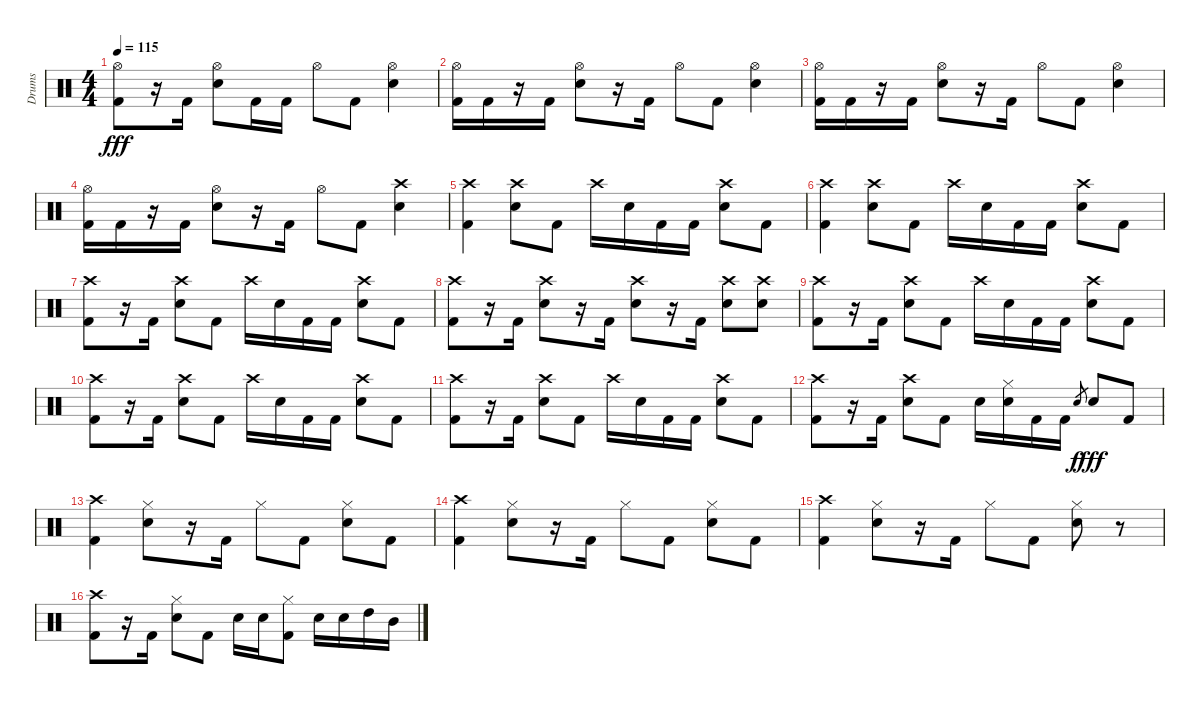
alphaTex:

\track ("Drums" "Drums") {instrument percussion}
\staff {score}
\articulation defaults
\ts (4 4)
\tempo 115
\clef neutral
\ks c
("Hi-Hat (open)" "Kick (hit) 2").8{dy fff} r.16 "Kick (hit) 2".16 ("Hi-Hat (open)" "Electric Snare (hit)").8 "Kick (hit) 2".16 "Kick (hit) 2".16 "Hi-Hat (open)".8 "Kick (hit) 2".8 ("Hi-Hat (open)" "Electric Snare (hit)").4 |
("Hi-Hat (open)" "Kick (hit) 2").16 "Kick (hit) 2".16 r.16 "Kick (hit) 2".16 ("Hi-Hat (open)" "Electric Snare (hit)").8 r.16 "Kick (hit) 2".16 "Hi-Hat (open)".8 "Kick (hit) 2".8 ("Hi-Hat (open)" "Electric Snare (hit)").4 |
("Hi-Hat (open)" "Kick (hit) 2").16 "Kick (hit) 2".16 r.16 "Kick (hit) 2".16 ("Hi-Hat (open)" "Electric Snare (hit)").8 r.16 "Kick (hit) 2".16 "Hi-Hat (open)".8 "Kick (hit) 2".8 ("Hi-Hat (open)" "Electric Snare (hit)").4 |
("Hi-Hat (open)" "Kick (hit) 2").16 "Kick (hit) 2".16 r.16 "Kick (hit) 2".16 ("Hi-Hat (open)" "Electric Snare (hit)").8 r.16 "Kick (hit) 2".16 "Hi-Hat (open)".8 "Kick (hit) 2".8 ("Crash high (hit)" "Electric Snare (hit)").4 |
("Crash high (hit)" "Kick (hit) 2").4 ("Crash high (hit)" "Electric Snare (hit)").8 "Kick (hit) 2".8 "Crash high (hit)".16 "Electric Snare (hit)".16 "Kick (hit) 2".16 "Kick (hit) 2".16 ("Crash high (hit)" "Electric Snare (hit)").8 "Kick (hit) 2".8 |
("Crash high (hit)" "Kick (hit) 2").4 ("Crash high (hit)" "Electric Snare (hit)").8 "Kick (hit) 2".8 "Crash high (hit)".16 "Electric Snare (hit)".16 "Kick (hit) 2".16 "Kick (hit) 2".16 ("Crash high (hit)" "Electric Snare (hit)").8 "Kick (hit) 2".8 |
("Crash high (hit)" "Kick (hit) 2").8 r.16 "Kick (hit) 2".16 ("Crash high (hit)" "Electric Snare (hit)").8 "Kick (hit) 2".8 "Crash high (hit)".16 "Electric Snare (hit)".16 "Kick (hit) 2".16 "Kick (hit) 2".16 ("Crash high (hit)" "Electric Snare (hit)").8 "Kick (hit) 2".8 |
("Crash high (hit)" "Kick (hit) 2").8 r.16 "Kick (hit) 2".16 ("Crash high (hit)" "Electric Snare (hit)").8 r.16 "Kick (hit) 2".16 ("Crash high (hit)" "Electric Snare (hit)").8 r.16 "Kick (hit) 2".16 ("Crash high (hit)" "Electric Snare (hit)").8 ("Crash high (hit)" "Electric Snare (hit)").8 |
("Crash high (hit)" "Kick (hit) 2").8 r.16 "Kick (hit) 2".16 ("Crash high (hit)" "Electric Snare (hit)").8 "Kick (hit) 2".8 "Crash high (hit)".16 "Electric Snare (hit)".16 "Kick (hit) 2".16 "Kick (hit) 2".16 ("Crash high (hit)" "Electric Snare (hit)").8 "Kick (hit) 2".8 |
("Crash high (hit)" "Kick (hit) 2").8 r.16 "Kick (hit) 2".16 ("Crash high (hit)" "Electric Snare (hit)").8 "Kick (hit) 2".8 "Crash high (hit)".16 "Electric Snare (hit)".16 "Kick (hit) 2".16 "Kick (hit) 2".16 ("Crash high (hit)" "Electric Snare (hit)").8 "Kick (hit) 2".8 |
("Crash high (hit)" "Kick (hit) 2").8 r.16 "Kick (hit) 2".16 ("Crash high (hit)" "Electric Snare (hit)").8 "Kick (hit) 2".8 "Crash high (hit)".16 "Electric Snare (hit)".16 "Kick (hit) 2".16 "Kick (hit) 2".16 ("Crash high (hit)" "Electric Snare (hit)").8 "Kick (hit) 2".8 |
("Crash high (hit)" "Kick (hit) 2").8 r.16 "Kick (hit) 2".16 ("Crash high (hit)" "Electric Snare (hit)").8 "Kick (hit) 2".8 "Electric Snare (hit)".16 ("Hi-Hat (closed)" "Electric Snare (hit)").16 "Kick (hit) 2".16 "Kick (hit) 2".16 "Electric Snare (hit)".8{gr dy f} "Electric Snare (hit)".8{dy fff} "Kick (hit) 2".8 |
("Crash high (hit)" "Kick (hit) 2").4 ("Hi-Hat (closed)" "Electric Snare (hit)").8 r.16 "Kick (hit) 2".16 "Hi-Hat (closed)".8 "Kick (hit) 2".8 ("Hi-Hat (closed)" "Electric Snare (hit)").8 "Kick (hit) 2".8 |
("Crash high (hit)" "Kick (hit) 2").4 ("Hi-Hat (closed)" "Electric Snare (hit)").8 r.16 "Kick (hit) 2".16 "Hi-Hat (closed)".8 "Kick (hit) 2".8 ("Hi-Hat (closed)" "Electric Snare (hit)").8 "Kick (hit) 2".8 |
("Crash high (hit)" "Kick (hit) 2").4 ("Hi-Hat (closed)" "Electric Snare (hit)").8 r.16 "Kick (hit) 2".16 "Hi-Hat (closed)".8 "Kick (hit) 2".8 ("Hi-Hat (closed)" "Electric Snare (hit)").8 r.8 |
("Crash high (hit)" "Kick (hit) 2").8 r.16 "Kick (hit) 2".16 ("Hi-Hat (closed)" "Electric Snare (hit)").8 "Kick (hit) 2".8 "Electric Snare (hit)".16 "Electric Snare (hit)".16 ("Hi-Hat (closed)" "Kick (hit) 2").8 "Electric Snare (hit)".16 "Electric Snare (hit)".16 "High Tom (hit)".16 "Mid Tom (hit)".16
